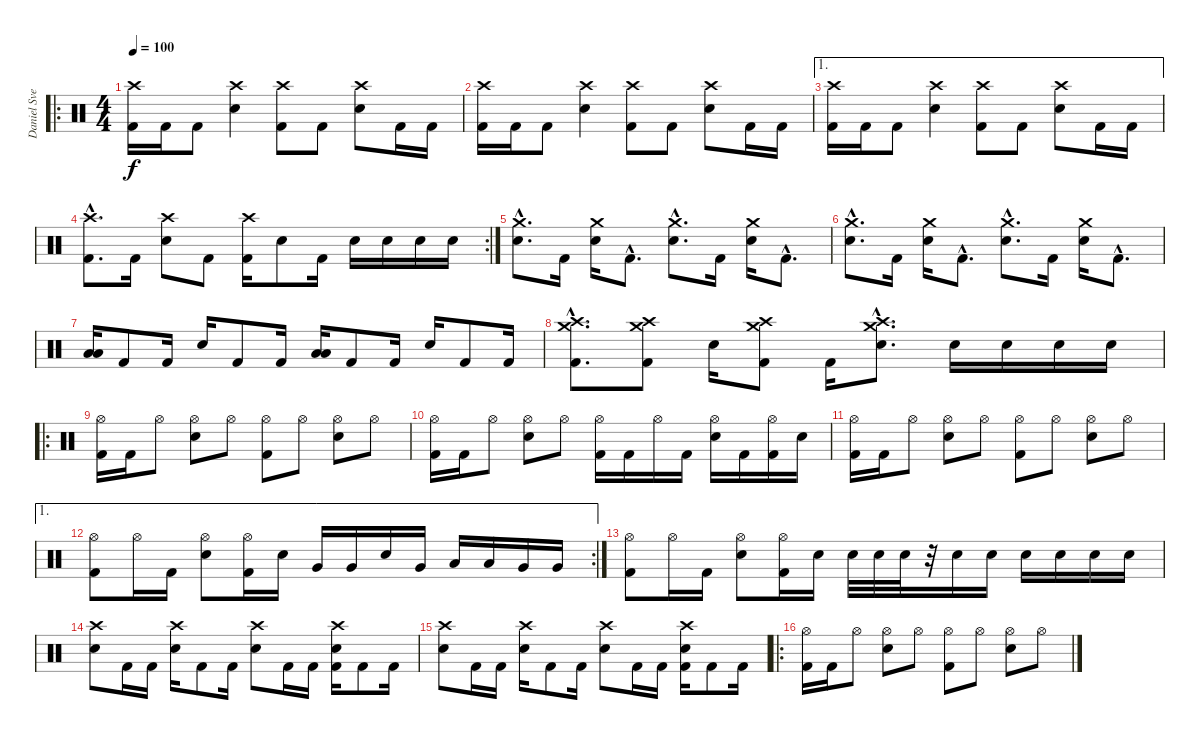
\track ("Daniel Svensson" "Daniel Sve") {instrument percussion}
\staff {score}
\articulation defaults
\ro
\ts (4 4)
\tempo 100
\clef neutral
\ks c
("Crash high (hit)" "Kick (hit) 2").16{dy f} "Kick (hit) 2".16 "Kick (hit) 2".8 ("Crash high (hit)" "Snare (hit) 2").4 ("Crash high (hit)" "Kick (hit) 2").8 "Kick (hit) 2".8 ("Crash high (hit)" "Snare (hit) 2").8 "Kick (hit) 2".16 "Kick (hit) 2".16 |
("Crash high (hit)" "Kick (hit) 2").16 "Kick (hit) 2".16 "Kick (hit) 2".8 ("Crash high (hit)" "Snare (hit) 2").4 ("Crash high (hit)" "Kick (hit) 2").8 "Kick (hit) 2".8 ("Crash high (hit)" "Snare (hit) 2").8 "Kick (hit) 2".16 "Kick (hit) 2".16 |
\ae 1
("Crash high (hit)" "Kick (hit) 2").16 "Kick (hit) 2".16 "Kick (hit) 2".8 ("Crash high (hit)" "Snare (hit) 2").4 ("Crash high (hit)" "Kick (hit) 2").8 "Kick (hit) 2".8 ("Crash high (hit)" "Snare (hit) 2").8 "Kick (hit) 2".16 "Kick (hit) 2".16 |
\rc 2
("Crash high (hit)"{hac} "Kick (hit) 2"{hac}).8{d} "Kick (hit) 2".16 ("Crash high (hit)" "Snare (hit) 2").8 "Kick (hit) 2".8 ("Crash high (hit)" "Kick (hit) 2").16 "Snare (hit) 2".8 "Kick (hit) 2".16 "Snare (hit) 2".16 "Snare (hit) 2".16 "Snare (hit) 2".16 "Snare (hit) 2".16 |
("Crash medium (hit)"{hac} "Snare (hit) 2"{hac}).8{d} "Kick (hit) 2".16 ("Crash medium (hit)" "Snare (hit) 2").16 "Kick (hit) 2"{hac}.8{d} ("Crash medium (hit)"{hac} "Snare (hit) 2"{hac}).8{d} "Kick (hit) 2".16 ("Crash medium (hit)" "Snare (hit) 2").16 "Kick (hit) 2"{hac}.8{d} |
("Crash medium (hit)"{hac} "Snare (hit) 2"{hac}).8{d} "Kick (hit) 2".16 ("Crash medium (hit)" "Snare (hit) 2").16 "Kick (hit) 2"{hac}.8{d} ("Crash medium (hit)"{hac} "Snare (hit) 2"{hac}).8{d} "Kick (hit) 2".16 ("Crash medium (hit)" "Snare (hit) 2").16 "Kick (hit) 2"{hac}.8{d} |
("Low Tom (hit)" "Low Floor Tom (hit)").16 "Kick (hit) 2".8 "Kick (hit) 2".16 "Snare (hit) 2".16 "Kick (hit) 2".8 "Kick (hit) 2".16 ("Low Tom (hit)" "Low Floor Tom (hit)").16 "Kick (hit) 2".8 "Kick (hit) 2".16 "Snare (hit) 2".16 "Kick (hit) 2".8 "Kick (hit) 2".16 |
("Crash high (hit)"{hac} "Crash medium (hit)"{hac} "Kick (hit) 2"{hac}).8{d} ("Crash high (hit)" "Crash medium (hit)" "Kick (hit) 2").8 "Snare (hit) 2".16 ("Crash high (hit)" "Crash medium (hit)" "Kick (hit) 2").8 "Kick (hit) 2".16 ("Crash high (hit)"{hac} "Crash medium (hit)"{hac} "Snare (hit) 2"{hac}).8{d} "Snare (hit) 2".16 "Snare (hit) 2".16 "Snare (hit) 2".16 "Snare (hit) 2".16 |
\ro
("Hi-Hat (open)" "Kick (hit) 2").16 "Kick (hit) 2".16 "Hi-Hat (open)".8 ("Hi-Hat (open)" "Snare (hit) 2").8 "Hi-Hat (open)".8 ("Hi-Hat (open)" "Kick (hit) 2").8 "Hi-Hat (open)".8 ("Hi-Hat (open)" "Snare (hit) 2").8 "Hi-Hat (open)".8 |
("Hi-Hat (open)" "Kick (hit) 2").16 "Kick (hit) 2".16 "Hi-Hat (open)".8 ("Hi-Hat (open)" "Snare (hit) 2").8 "Hi-Hat (open)".8 ("Hi-Hat (open)" "Kick (hit) 2").16 "Kick (hit) 2".16 "Hi-Hat (open)".16 "Kick (hit) 2".16 ("Hi-Hat (open)" "Snare (hit) 2").16 "Kick (hit) 2".16 ("Hi-Hat (open)" "Kick (hit) 2").16 "Snare (hit) 2".16 |
("Hi-Hat (open)" "Kick (hit) 2").16 "Kick (hit) 2".16 "Hi-Hat (open)".8 ("Hi-Hat (open)" "Snare (hit) 2").8 "Hi-Hat (open)".8 ("Hi-Hat (open)" "Kick (hit) 2").8 "Hi-Hat (open)".8 ("Hi-Hat (open)" "Snare (hit) 2").8 "Hi-Hat (open)".8 |
\ae 1
\rc 2
("Hi-Hat (open)" "Kick (hit) 2").8 "Hi-Hat (open)".16 "Kick (hit) 2".16 ("Hi-Hat (open)" "Snare (hit) 2").8 ("Hi-Hat (open)" "Kick (hit) 2").16 "Snare (hit) 2".16 "Very Low Tom (hit)".16 "Very Low Tom (hit)".16 "Snare (hit) 2".16 "Very Low Tom (hit)".16 "Low Floor Tom (hit)".16 "Low Floor Tom (hit)".16 "Very Low Tom (hit)".16 "Very Low Tom (hit)".16 |
("Hi-Hat (open)" "Kick (hit) 2").8 "Hi-Hat (open)".16 "Kick (hit) 2".16 ("Hi-Hat (open)" "Snare (hit) 2").8 ("Hi-Hat (open)" "Kick (hit) 2").16 "Snare (hit) 2".16 "Snare (hit) 2".32 "Snare (hit) 2".32 "Snare (hit) 2".32 r.32 "Snare (hit) 2".16 "Snare (hit) 2".16 "Snare (hit) 2".16 "Snare (hit) 2".16 "Snare (hit) 2".16 "Snare (hit) 2".16 |
("Crash high (hit)" "Snare (hit) 2").8 "Kick (hit) 2".16 "Kick (hit) 2".16 ("Crash high (hit)" "Snare (hit) 2").16 "Kick (hit) 2".8 "Kick (hit) 2".16 ("Crash high (hit)" "Snare (hit) 2").8 "Kick (hit) 2".16 "Kick (hit) 2".16 ("Crash high (hit)" "Snare (hit) 2" "Kick (hit) 2").16 "Kick (hit) 2".8 "Kick (hit) 2".16 |
("Crash high (hit)" "Snare (hit) 2").8 "Kick (hit) 2".16 "Kick (hit) 2".16 ("Crash high (hit)" "Snare (hit) 2").16 "Kick (hit) 2".8 "Kick (hit) 2".16 ("Crash high (hit)" "Snare (hit) 2").8 "Kick (hit) 2".16 "Kick (hit) 2".16 ("Crash high (hit)" "Snare (hit) 2" "Kick (hit) 2").16 "Kick (hit) 2".8 "Kick (hit) 2".16 |
\ro
("Hi-Hat (open)" "Kick (hit) 2").16 "Kick (hit) 2".16 "Hi-Hat (open)".8 ("Hi-Hat (open)" "Snare (hit) 2").8 "Hi-Hat (open)".8 ("Hi-Hat (open)" "Kick (hit) 2").8 "Hi-Hat (open)".8 ("Hi-Hat (open)" "Snare (hit) 2").8 "Hi-Hat (open)".8
